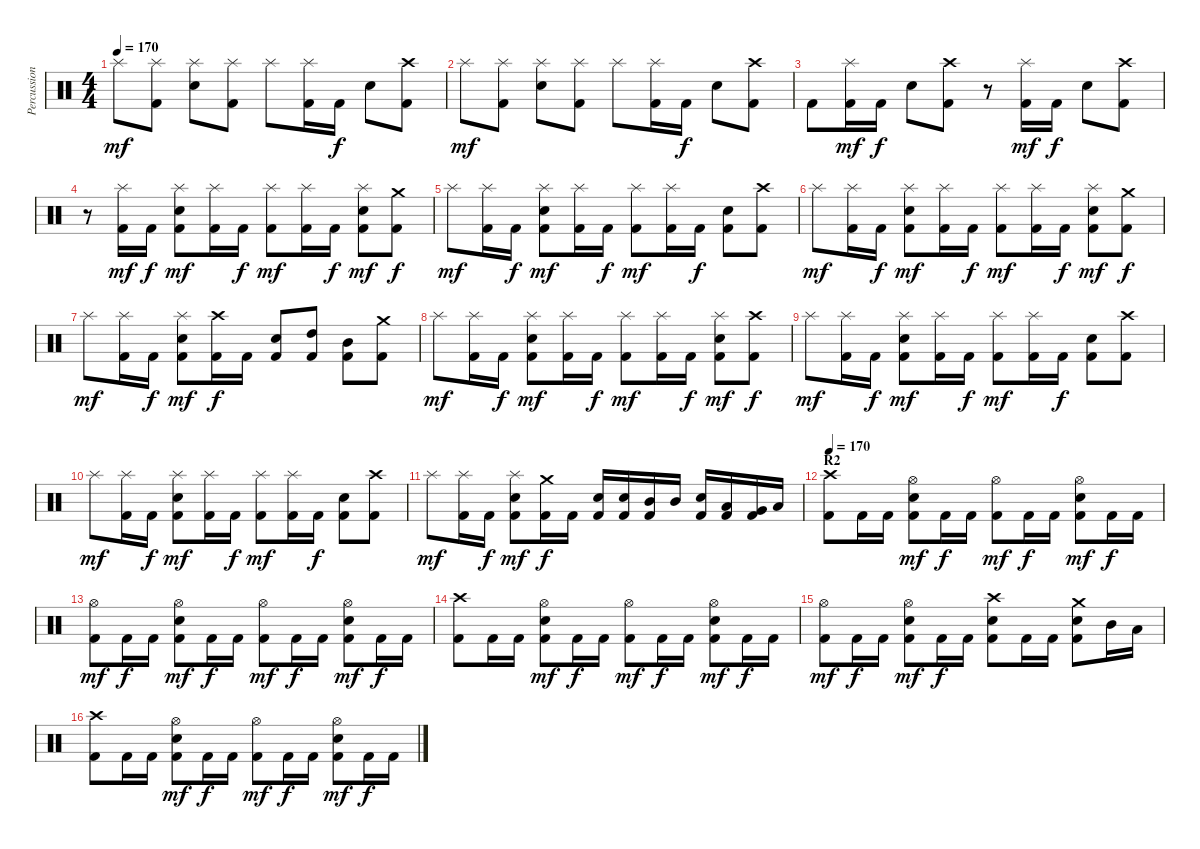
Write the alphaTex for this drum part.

\track ("Percussion" "Percussion") {instrument percussion}
\staff {score}
\articulation defaults
\ts (4 4)
\tempo 170
\clef neutral
\ks c "Splash (hit)".8{dy mf}
("Splash (hit)" "Kick (hit) 2").8 ("Splash (hit)" "Electric Snare (hit)").8 ("Splash (hit)" "Kick (hit) 2").8 "Splash (hit)".8 ("Splash (hit)" "Kick (hit) 2").16 "Kick (hit) 2".16{dy f} "Electric Snare (hit)".8 ("Crash high (hit)" "Kick (hit) 2").8 |
"Splash (hit)".8{dy mf} ("Splash (hit)" "Kick (hit) 2").8 ("Splash (hit)" "Electric Snare (hit)").8 ("Splash (hit)" "Kick (hit) 2").8 "Splash (hit)".8 ("Splash (hit)" "Kick (hit) 2").16 "Kick (hit) 2".16{dy f} "Electric Snare (hit)".8 ("Crash high (hit)" "Kick (hit) 2").8 |
"Kick (hit) 2".8 ("Splash (hit)" "Kick (hit) 2").16{dy mf} "Kick (hit) 2".16{dy f} "Electric Snare (hit)".8 ("Crash high (hit)" "Kick (hit) 2").8 r.8 ("Splash (hit)" "Kick (hit) 2").16{dy mf} "Kick (hit) 2".16{dy f} "Electric Snare (hit)".8 ("Crash high (hit)" "Kick (hit) 2").8 |
\section ("" "")
r.8 ("Splash (hit)" "Kick (hit) 2").16{dy mf} "Kick (hit) 2".16{dy f} ("Splash (hit)" "Electric Snare (hit)" "Kick (hit) 2").8{dy mf} ("Splash (hit)" "Kick (hit) 2").16 "Kick (hit) 2".16{dy f} ("Splash (hit)" "Kick (hit) 2").8{dy mf} ("Splash (hit)" "Kick (hit) 2").16 "Kick (hit) 2".16{dy f} ("Splash (hit)" "Electric Snare (hit)" "Kick (hit) 2").8{dy mf} ("Crash medium (hit)" "Kick (hit) 2").8{dy f} |
"Splash (hit)".8{dy mf} ("Splash (hit)" "Kick (hit) 2").16 "Kick (hit) 2".16{dy f} ("Splash (hit)" "Electric Snare (hit)" "Kick (hit) 2").8{dy mf} ("Splash (hit)" "Kick (hit) 2").16 "Kick (hit) 2".16{dy f} ("Splash (hit)" "Kick (hit) 2").8{dy mf} ("Splash (hit)" "Kick (hit) 2").16 "Kick (hit) 2".16{dy f} ("Electric Snare (hit)" "Kick (hit) 2").8 ("Crash high (hit)" "Kick (hit) 2").8 |
"Splash (hit)".8{dy mf} ("Splash (hit)" "Kick (hit) 2").16 "Kick (hit) 2".16{dy f} ("Splash (hit)" "Electric Snare (hit)" "Kick (hit) 2").8{dy mf} ("Splash (hit)" "Kick (hit) 2").16 "Kick (hit) 2".16{dy f} ("Splash (hit)" "Kick (hit) 2").8{dy mf} ("Splash (hit)" "Kick (hit) 2").16 "Kick (hit) 2".16{dy f} ("Splash (hit)" "Electric Snare (hit)" "Kick (hit) 2").8{dy mf} ("Crash medium (hit)" "Kick (hit) 2").8{dy f} |
"Splash (hit)".8{dy mf} ("Splash (hit)" "Kick (hit) 2").16 "Kick (hit) 2".16{dy f} ("Splash (hit)" "Electric Snare (hit)" "Kick (hit) 2").8{dy mf} ("Crash high (hit)" "Kick (hit) 2").16{dy f} "Kick (hit) 2".16 ("Electric Snare (hit)" "Kick (hit) 2").8 ("High Tom (hit)" "Kick (hit) 2").8 ("Mid Tom (hit)" "Kick (hit) 2").8 ("Crash medium (hit)" "Kick (hit) 2").8 |
"Splash (hit)".8{dy mf} ("Splash (hit)" "Kick (hit) 2").16 "Kick (hit) 2".16{dy f} ("Splash (hit)" "Electric Snare (hit)" "Kick (hit) 2").8{dy mf} ("Splash (hit)" "Kick (hit) 2").16 "Kick (hit) 2".16{dy f} ("Splash (hit)" "Kick (hit) 2").8{dy mf} ("Splash (hit)" "Kick (hit) 2").16 "Kick (hit) 2".16{dy f} ("Splash (hit)" "Electric Snare (hit)" "Kick (hit) 2").8{dy mf} ("Crash high (hit)" "Kick (hit) 2").8{dy f} |
"Splash (hit)".8{dy mf} ("Splash (hit)" "Kick (hit) 2").16 "Kick (hit) 2".16{dy f} ("Splash (hit)" "Electric Snare (hit)" "Kick (hit) 2").8{dy mf} ("Splash (hit)" "Kick (hit) 2").16 "Kick (hit) 2".16{dy f} ("Splash (hit)" "Kick (hit) 2").8{dy mf} ("Splash (hit)" "Kick (hit) 2").16 "Kick (hit) 2".16{dy f} ("Electric Snare (hit)" "Kick (hit) 2").8 ("Crash high (hit)" "Kick (hit) 2").8 |
"Splash (hit)".8{dy mf} ("Splash (hit)" "Kick (hit) 2").16 "Kick (hit) 2".16{dy f} ("Splash (hit)" "Electric Snare (hit)" "Kick (hit) 2").8{dy mf} ("Splash (hit)" "Kick (hit) 2").16 "Kick (hit) 2".16{dy f} ("Splash (hit)" "Kick (hit) 2").8{dy mf} ("Splash (hit)" "Kick (hit) 2").16 "Kick (hit) 2".16{dy f} ("Electric Snare (hit)" "Kick (hit) 2").8 ("Crash high (hit)" "Kick (hit) 2").8 |
"Splash (hit)".8{dy mf} ("Splash (hit)" "Kick (hit) 2").16 "Kick (hit) 2".16{dy f} ("Splash (hit)" "Electric Snare (hit)" "Kick (hit) 2").8{dy mf} ("Crash medium (hit)" "Kick (hit) 2").16{dy f} "Kick (hit) 2".16 ("Electric Snare (hit)" "Kick (hit) 2").16 ("Electric Snare (hit)" "Kick (hit) 2").16 ("Mid Tom (hit)" "Kick (hit) 2").16 "Mid Tom (hit)".16 ("Electric Snare (hit)" "Kick (hit) 2").16 ("Low Tom (hit)" "Kick (hit) 2").16 ("Very Low Tom (hit)" "Kick (hit) 2").16 "Low Floor Tom (hit)".16 |
\section ("" "R2")
\tempo 170
("Crash high (hit)" "Kick (hit) 2").8 "Kick (hit) 2".16 "Kick (hit) 2".16 ("Hi-Hat (open)" "Electric Snare (hit)" "Kick (hit) 2").8{dy mf} "Kick (hit) 2".16{dy f} "Kick (hit) 2".16 ("Hi-Hat (open)" "Kick (hit) 2").8{dy mf} "Kick (hit) 2".16{dy f} "Kick (hit) 2".16 ("Hi-Hat (open)" "Electric Snare (hit)" "Kick (hit) 2").8{dy mf} "Kick (hit) 2".16{dy f} "Kick (hit) 2".16 |
("Hi-Hat (open)" "Kick (hit) 2").8{dy mf} "Kick (hit) 2".16{dy f} "Kick (hit) 2".16 ("Hi-Hat (open)" "Electric Snare (hit)" "Kick (hit) 2").8{dy mf} "Kick (hit) 2".16{dy f} "Kick (hit) 2".16 ("Hi-Hat (open)" "Kick (hit) 2").8{dy mf} "Kick (hit) 2".16{dy f} "Kick (hit) 2".16 ("Hi-Hat (open)" "Electric Snare (hit)" "Kick (hit) 2").8{dy mf} "Kick (hit) 2".16{dy f} "Kick (hit) 2".16 |
("Crash high (hit)" "Kick (hit) 2").8 "Kick (hit) 2".16 "Kick (hit) 2".16 ("Hi-Hat (open)" "Electric Snare (hit)" "Kick (hit) 2").8{dy mf} "Kick (hit) 2".16{dy f} "Kick (hit) 2".16 ("Hi-Hat (open)" "Kick (hit) 2").8{dy mf} "Kick (hit) 2".16{dy f} "Kick (hit) 2".16 ("Hi-Hat (open)" "Electric Snare (hit)" "Kick (hit) 2").8{dy mf} "Kick (hit) 2".16{dy f} "Kick (hit) 2".16 |
("Hi-Hat (open)" "Kick (hit) 2").8{dy mf} "Kick (hit) 2".16{dy f} "Kick (hit) 2".16 ("Hi-Hat (open)" "Electric Snare (hit)" "Kick (hit) 2").8{dy mf} "Kick (hit) 2".16{dy f} "Kick (hit) 2".16 ("Crash high (hit)" "Electric Snare (hit)" "Kick (hit) 2").8 "Kick (hit) 2".16 "Kick (hit) 2".16 ("Crash medium (hit)" "Electric Snare (hit)" "Kick (hit) 2").8 "Mid Tom (hit)".16 "Low Tom (hit)".16 |
("Crash high (hit)" "Kick (hit) 2").8 "Kick (hit) 2".16 "Kick (hit) 2".16 ("Hi-Hat (open)" "Electric Snare (hit)" "Kick (hit) 2").8{dy mf} "Kick (hit) 2".16{dy f} "Kick (hit) 2".16 ("Hi-Hat (open)" "Kick (hit) 2").8{dy mf} "Kick (hit) 2".16{dy f} "Kick (hit) 2".16 ("Hi-Hat (open)" "Electric Snare (hit)" "Kick (hit) 2").8{dy mf} "Kick (hit) 2".16{dy f} "Kick (hit) 2".16
